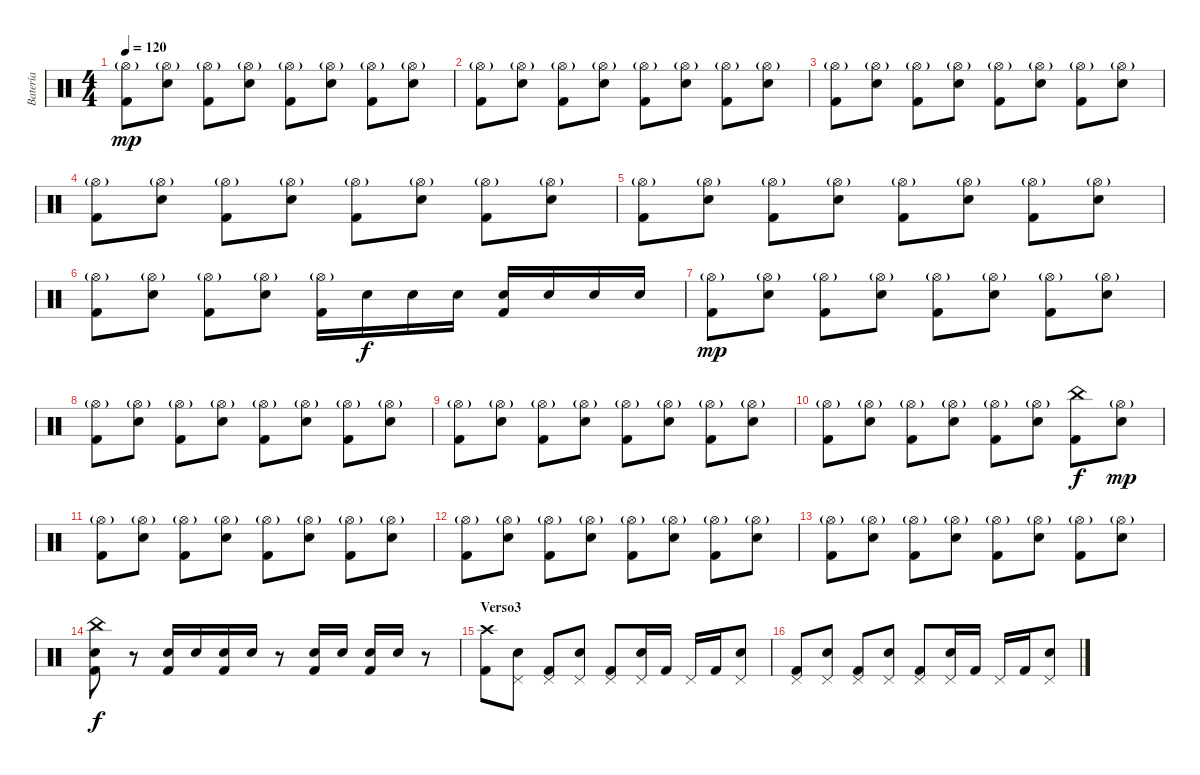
\track ("Batería" "Batería") {instrument percussion}
\staff {score}
\articulation defaults
\ts (4 4)
\tempo 120
\clef neutral
\ks c
("Hi-Hat (open)"{g} "Kick (hit) 2").8{dy mp} ("Hi-Hat (open)"{g} "Snare (hit) 2").8 ("Hi-Hat (open)"{g} "Kick (hit) 2").8 ("Hi-Hat (open)"{g} "Snare (hit) 2").8 ("Hi-Hat (open)"{g} "Kick (hit) 2").8 ("Hi-Hat (open)"{g} "Snare (hit) 2").8 ("Hi-Hat (open)"{g} "Kick (hit) 2").8 ("Hi-Hat (open)"{g} "Snare (hit) 2").8 |
("Hi-Hat (open)"{g} "Kick (hit) 2").8 ("Hi-Hat (open)"{g} "Snare (hit) 2").8 ("Hi-Hat (open)"{g} "Kick (hit) 2").8 ("Hi-Hat (open)"{g} "Snare (hit) 2").8 ("Hi-Hat (open)"{g} "Kick (hit) 2").8 ("Hi-Hat (open)"{g} "Snare (hit) 2").8 ("Hi-Hat (open)"{g} "Kick (hit) 2").8 ("Hi-Hat (open)"{g} "Snare (hit) 2").8 |
("Hi-Hat (open)"{g} "Kick (hit) 2").8 ("Hi-Hat (open)"{g} "Snare (hit) 2").8 ("Hi-Hat (open)"{g} "Kick (hit) 2").8 ("Hi-Hat (open)"{g} "Snare (hit) 2").8 ("Hi-Hat (open)"{g} "Kick (hit) 2").8 ("Hi-Hat (open)"{g} "Snare (hit) 2").8 ("Hi-Hat (open)"{g} "Kick (hit) 2").8 ("Hi-Hat (open)"{g} "Snare (hit) 2").8 |
("Hi-Hat (open)"{g} "Kick (hit) 2").8 ("Hi-Hat (open)"{g} "Snare (hit) 2").8 ("Hi-Hat (open)"{g} "Kick (hit) 2").8 ("Hi-Hat (open)"{g} "Snare (hit) 2").8 ("Hi-Hat (open)"{g} "Kick (hit) 2").8 ("Hi-Hat (open)"{g} "Snare (hit) 2").8 ("Hi-Hat (open)"{g} "Kick (hit) 2").8 ("Hi-Hat (open)"{g} "Snare (hit) 2").8 |
("Hi-Hat (open)"{g} "Kick (hit) 2").8 ("Hi-Hat (open)"{g} "Snare (hit) 2").8 ("Hi-Hat (open)"{g} "Kick (hit) 2").8 ("Hi-Hat (open)"{g} "Snare (hit) 2").8 ("Hi-Hat (open)"{g} "Kick (hit) 2").8 ("Hi-Hat (open)"{g} "Snare (hit) 2").8 ("Hi-Hat (open)"{g} "Kick (hit) 2").8 ("Hi-Hat (open)"{g} "Snare (hit) 2").8 |
("Hi-Hat (open)"{g} "Kick (hit) 2").8 ("Hi-Hat (open)"{g} "Snare (hit) 2").8 ("Hi-Hat (open)"{g} "Kick (hit) 2").8 ("Hi-Hat (open)"{g} "Snare (hit) 2").8 ("Hi-Hat (open)"{g} "Kick (hit) 2").16 "Snare (hit) 2".16{dy f} "Snare (hit) 2".16 "Snare (hit) 2".16 ("Snare (hit) 2" "Kick (hit) 2").16 "Snare (hit) 2".16 "Snare (hit) 2".16 "Snare (hit) 2".16 |
("Hi-Hat (open)"{g} "Kick (hit) 2").8{dy mp} ("Hi-Hat (open)"{g} "Snare (hit) 2").8 ("Hi-Hat (open)"{g} "Kick (hit) 2").8 ("Hi-Hat (open)"{g} "Snare (hit) 2").8 ("Hi-Hat (open)"{g} "Kick (hit) 2").8 ("Hi-Hat (open)"{g} "Snare (hit) 2").8 ("Hi-Hat (open)"{g} "Kick (hit) 2").8 ("Hi-Hat (open)"{g} "Snare (hit) 2").8 |
("Hi-Hat (open)"{g} "Kick (hit) 2").8 ("Hi-Hat (open)"{g} "Snare (hit) 2").8 ("Hi-Hat (open)"{g} "Kick (hit) 2").8 ("Hi-Hat (open)"{g} "Snare (hit) 2").8 ("Hi-Hat (open)"{g} "Kick (hit) 2").8 ("Hi-Hat (open)"{g} "Snare (hit) 2").8 ("Hi-Hat (open)"{g} "Kick (hit) 2").8 ("Hi-Hat (open)"{g} "Snare (hit) 2").8 |
("Hi-Hat (open)"{g} "Kick (hit) 2").8 ("Hi-Hat (open)"{g} "Snare (hit) 2").8 ("Hi-Hat (open)"{g} "Kick (hit) 2").8 ("Hi-Hat (open)"{g} "Snare (hit) 2").8 ("Hi-Hat (open)"{g} "Kick (hit) 2").8 ("Hi-Hat (open)"{g} "Snare (hit) 2").8 ("Hi-Hat (open)"{g} "Kick (hit) 2").8 ("Hi-Hat (open)"{g} "Snare (hit) 2").8 |
("Hi-Hat (open)"{g} "Kick (hit) 2").8 ("Hi-Hat (open)"{g} "Snare (hit) 2").8 ("Hi-Hat (open)"{g} "Kick (hit) 2").8 ("Hi-Hat (open)"{g} "Snare (hit) 2").8 ("Hi-Hat (open)"{g} "Kick (hit) 2").8 ("Hi-Hat (open)"{g} "Snare (hit) 2").8 ("China (hit)" "Kick (hit) 2").8{dy f} ("Hi-Hat (open)"{g} "Snare (hit) 2").8{dy mp} |
("Hi-Hat (open)"{g} "Kick (hit) 2").8 ("Hi-Hat (open)"{g} "Snare (hit) 2").8 ("Hi-Hat (open)"{g} "Kick (hit) 2").8 ("Hi-Hat (open)"{g} "Snare (hit) 2").8 ("Hi-Hat (open)"{g} "Kick (hit) 2").8 ("Hi-Hat (open)"{g} "Snare (hit) 2").8 ("Hi-Hat (open)"{g} "Kick (hit) 2").8 ("Hi-Hat (open)"{g} "Snare (hit) 2").8 |
("Hi-Hat (open)"{g} "Kick (hit) 2").8 ("Hi-Hat (open)"{g} "Snare (hit) 2").8 ("Hi-Hat (open)"{g} "Kick (hit) 2").8 ("Hi-Hat (open)"{g} "Snare (hit) 2").8 ("Hi-Hat (open)"{g} "Kick (hit) 2").8 ("Hi-Hat (open)"{g} "Snare (hit) 2").8 ("Hi-Hat (open)"{g} "Kick (hit) 2").8 ("Hi-Hat (open)"{g} "Snare (hit) 2").8 |
("Hi-Hat (open)"{g} "Kick (hit) 2").8 ("Hi-Hat (open)"{g} "Snare (hit) 2").8 ("Hi-Hat (open)"{g} "Kick (hit) 2").8 ("Hi-Hat (open)"{g} "Snare (hit) 2").8 ("Hi-Hat (open)"{g} "Kick (hit) 2").8 ("Hi-Hat (open)"{g} "Snare (hit) 2").8 ("Hi-Hat (open)"{g} "Kick (hit) 2").8 ("Hi-Hat (open)"{g} "Snare (hit) 2").8 |
("China (hit)" "Kick (hit) 2" "Snare (hit) 2").8{dy f} r.8 ("Snare (hit) 2" "Kick (hit) 2").16 "Snare (hit) 2".16 ("Snare (hit) 2" "Kick (hit) 2").16 "Snare (hit) 2".16 r.8 ("Snare (hit) 2" "Kick (hit) 2").16 "Snare (hit) 2".16 ("Snare (hit) 2" "Kick (hit) 2").16 "Snare (hit) 2".16 r.8 |
\section ("" "Verso3")
("Crash high (hit)" "Kick (hit) 2").8 ("Pedal Hi-Hat (hit)" "Snare (hit) 2").8 ("Pedal Hi-Hat (hit)" "Kick (hit) 2").8 ("Pedal Hi-Hat (hit)" "Snare (hit) 2").8 ("Pedal Hi-Hat (hit)" "Kick (hit) 2").8 ("Pedal Hi-Hat (hit)" "Snare (hit) 2").16 "Kick (hit) 2".16 "Pedal Hi-Hat (hit)".16 "Kick (hit) 2".16 ("Pedal Hi-Hat (hit)" "Snare (hit) 2").8 |
("Pedal Hi-Hat (hit)" "Kick (hit) 2").8 ("Pedal Hi-Hat (hit)" "Snare (hit) 2").8 ("Pedal Hi-Hat (hit)" "Kick (hit) 2").8 ("Pedal Hi-Hat (hit)" "Snare (hit) 2").8 ("Pedal Hi-Hat (hit)" "Kick (hit) 2").8 ("Pedal Hi-Hat (hit)" "Snare (hit) 2").16 "Kick (hit) 2".16 "Pedal Hi-Hat (hit)".16 "Kick (hit) 2".16 ("Pedal Hi-Hat (hit)" "Snare (hit) 2").8
